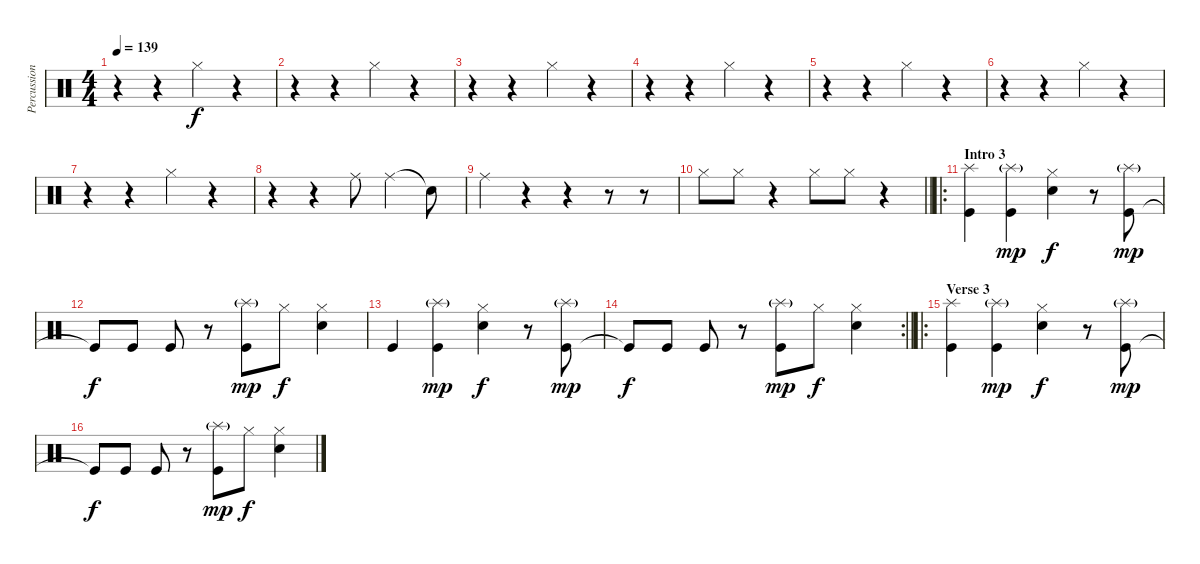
\track ("Percussion" "Percussion") {instrument percussion}
\staff {score}
\articulation defaults
\ts (4 4)
\tempo 139
\clef neutral
\ks c
r.4{dy f} r.4 "Hi-Hat (closed)".4 r.4 |
r.4 r.4 "Hi-Hat (closed)".4 r.4 |
r.4 r.4 "Hi-Hat (closed)".4 r.4 |
r.4 r.4 "Hi-Hat (closed)".4 r.4 |
r.4 r.4 "Hi-Hat (closed)".4 r.4 |
r.4 r.4 "Hi-Hat (closed)".4 r.4 |
r.4 r.4 "Hi-Hat (closed)".4 r.4 |
r.4 r.4 "Ride (middle)".8 "Ride (middle)".4 "Snare (hit)"{t}.8 |
"Ride (middle)".4 r.4 r.4 r.8 r.8 |
\barLineRight lightlight "Hi-Hat (closed)".8 "Hi-Hat (closed)".8
r.4 "Hi-Hat (closed)".8 "Hi-Hat (closed)".8 r.4 |
\ro
\section ("" "Intro 3")
("Kick (hit)" "Splash (hit)").4 ("Kick (hit)" "Splash (hit)"{g}).4{dy mp} ("Snare (hit) 2" "Hi-Hat (closed)").4{dy f} r.8 ("Kick (hit)" "Splash (hit)"{g}).8{dy mp} |
"Kick (hit)"{t}.8{dy f} "Kick (hit)".8 "Kick (hit)".8 r.8 ("Kick (hit)" "Splash (hit)"{g}).8{dy mp} "Hi-Hat (closed)".8{dy f} ("Snare (hit) 2" "Hi-Hat (closed)").4 |
"Kick (hit)".4 ("Kick (hit)" "Splash (hit)"{g}).4{dy mp} ("Snare (hit) 2" "Hi-Hat (closed)").4{dy f} r.8 ("Kick (hit)" "Splash (hit)"{g}).8{dy mp} |
\rc 2
\barLineRight lightlight "Kick (hit)"{t}.8{dy f} "Kick (hit)".8 "Kick (hit)".8
r.8 ("Kick (hit)" "Splash (hit)"{g}).8{dy mp} "Hi-Hat (closed)".8{dy f} ("Snare (hit) 2" "Hi-Hat (closed)").4 |
\ro
\section ("" "Verse 3")
("Kick (hit)" "Splash (hit)").4 ("Kick (hit)" "Splash (hit)"{g}).4{dy mp} ("Snare (hit) 2" "Hi-Hat (closed)").4{dy f} r.8 ("Kick (hit)" "Splash (hit)"{g}).8{dy mp} |
"Kick (hit)"{t}.8{dy f} "Kick (hit)".8 "Kick (hit)".8 r.8 ("Kick (hit)" "Splash (hit)"{g}).8{dy mp} "Hi-Hat (closed)".8{dy f} ("Snare (hit) 2" "Hi-Hat (closed)").4
